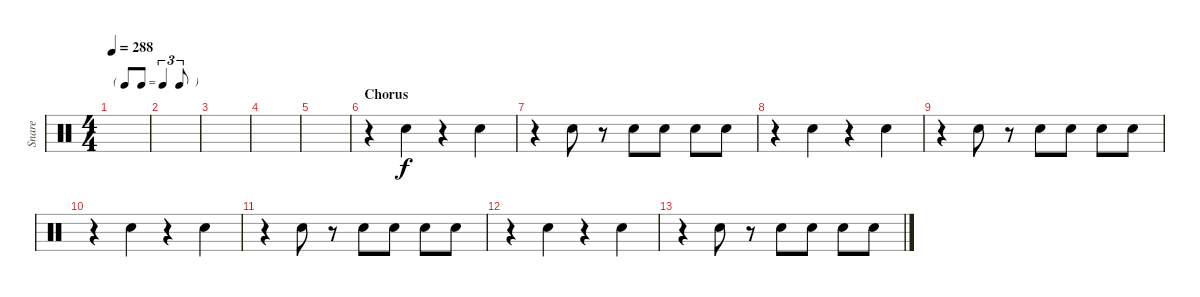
\track ("Snare" "Snare") {instrument percussion}
\staff {score}
\articulation defaults
\ts (4 4)
\tf triplet8th
\tempo 288
\clef neutral
\ks c
|
|
|
|
|
\section ("" "Chorus")
r.4 "Snare (hit) 2".4 r.4 "Snare (hit) 2".4 |
r.4 "Snare (hit) 2".8 r.8 "Snare (hit) 2".8 "Snare (hit) 2".8 "Snare (hit) 2".8 "Snare (hit) 2".8 |
r.4 "Snare (hit) 2".4 r.4 "Snare (hit) 2".4 |
r.4 "Snare (hit) 2".8 r.8 "Snare (hit) 2".8 "Snare (hit) 2".8 "Snare (hit) 2".8 "Snare (hit) 2".8 |
r.4 "Snare (hit) 2".4 r.4 "Snare (hit) 2".4 |
r.4 "Snare (hit) 2".8 r.8 "Snare (hit) 2".8 "Snare (hit) 2".8 "Snare (hit) 2".8 "Snare (hit) 2".8 |
r.4 "Snare (hit) 2".4 r.4 "Snare (hit) 2".4 |
r.4 "Snare (hit) 2".8 r.8 "Snare (hit) 2".8 "Snare (hit) 2".8 "Snare (hit) 2".8 "Snare (hit) 2".8
